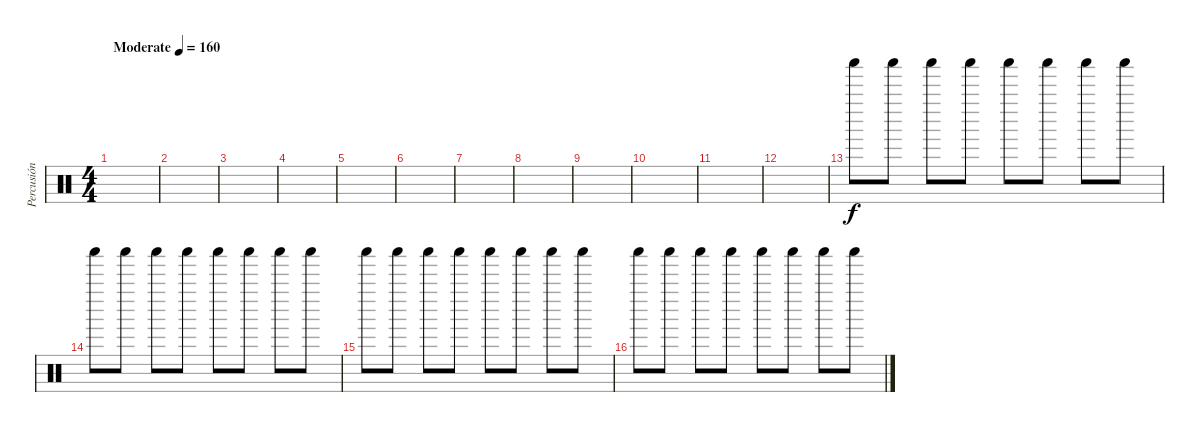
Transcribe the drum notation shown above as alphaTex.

\track ("Percusión" "Percusión") {instrument percussion}
\staff {score}
\articulation defaults
\ts (4 4)
\tempo (160 "Moderate")
\clef neutral
\ks c
|
|
|
|
|
|
|
|
|
|
|
|
"Shaker (hit)".8{balance 8} "Shaker (hit)".8 "Shaker (hit)".8 "Shaker (hit)".8 "Shaker (hit)".8 "Shaker (hit)".8 "Shaker (hit)".8 "Shaker (hit)".8 |
"Shaker (hit)".8 "Shaker (hit)".8 "Shaker (hit)".8 "Shaker (hit)".8 "Shaker (hit)".8 "Shaker (hit)".8 "Shaker (hit)".8 "Shaker (hit)".8 |
"Shaker (hit)".8 "Shaker (hit)".8 "Shaker (hit)".8 "Shaker (hit)".8 "Shaker (hit)".8 "Shaker (hit)".8 "Shaker (hit)".8 "Shaker (hit)".8 |
"Shaker (hit)".8 "Shaker (hit)".8 "Shaker (hit)".8 "Shaker (hit)".8 "Shaker (hit)".8 "Shaker (hit)".8 "Shaker (hit)".8 "Shaker (hit)".8
